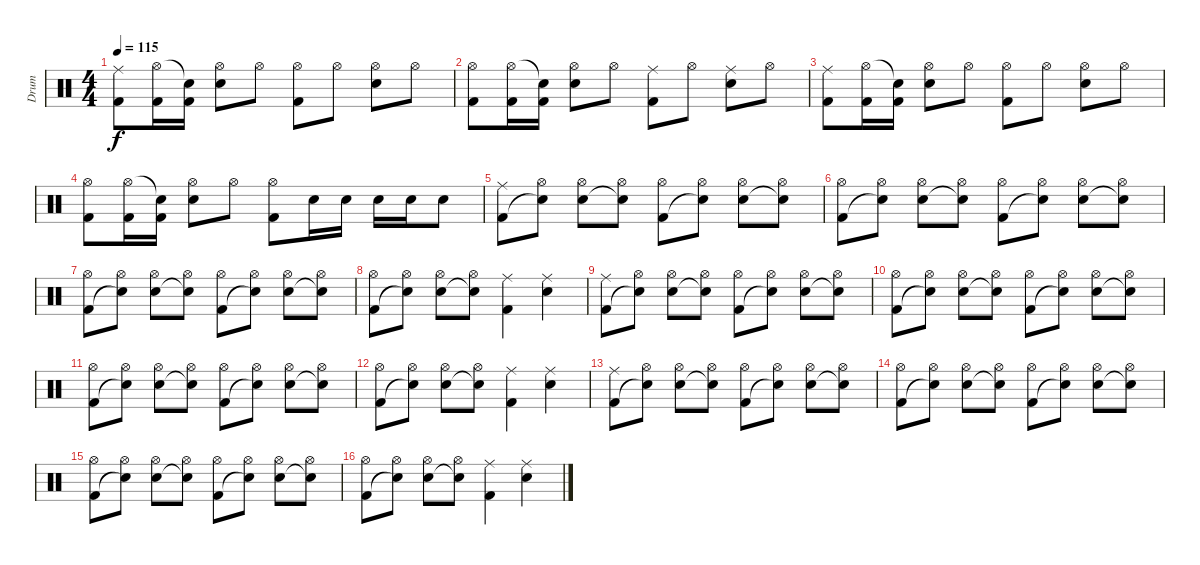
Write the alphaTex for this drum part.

\track ("Drum" "Drum") {instrument percussion}
\staff {score}
\articulation defaults
\ts (4 4)
\tempo 115
\clef neutral
\ks c
("Ride (middle)" "Kick (hit) 2").8{dy f} ("Hi-Hat (open)" "Kick (hit) 2").16 ("Snare (hit)"{t} "Kick (hit) 2").16 ("Hi-Hat (open)" "Electric Snare (hit)").8 "Hi-Hat (open)".8 ("Hi-Hat (open)" "Kick (hit) 2").8 "Hi-Hat (open)".8 ("Hi-Hat (open)" "Electric Snare (hit)").8 "Hi-Hat (open)".8 |
("Hi-Hat (open)" "Kick (hit) 2").8 ("Hi-Hat (open)" "Kick (hit) 2").16 ("Snare (hit)"{t} "Kick (hit) 2").16 ("Hi-Hat (open)" "Electric Snare (hit)").8 "Hi-Hat (open)".8 ("Ride (middle)" "Kick (hit) 2").8 "Hi-Hat (open)".8 ("Ride (middle)" "Electric Snare (hit)").8 "Hi-Hat (open)".8 |
("Ride (middle)" "Kick (hit) 2").8 ("Hi-Hat (open)" "Kick (hit) 2").16 ("Snare (hit)"{t} "Kick (hit) 2").16 ("Hi-Hat (open)" "Electric Snare (hit)").8 "Hi-Hat (open)".8 ("Hi-Hat (open)" "Kick (hit) 2").8 "Hi-Hat (open)".8 ("Hi-Hat (open)" "Electric Snare (hit)").8 "Hi-Hat (open)".8 |
("Hi-Hat (open)" "Kick (hit) 2").8 ("Hi-Hat (open)" "Kick (hit) 2").16 ("Snare (hit)"{t} "Kick (hit) 2").16 ("Hi-Hat (open)" "Electric Snare (hit)").8 "Hi-Hat (open)".8 ("Hi-Hat (open)" "Kick (hit) 2").8 "Electric Snare (hit)".16 "Electric Snare (hit)".16 "Electric Snare (hit)".16 "Electric Snare (hit)".16 "Electric Snare (hit)".8 |
("Ride (middle)" "Kick (hit) 2").8 ("Hi-Hat (open)" "Snare (hit)"{t}).8 ("Hi-Hat (open)" "Electric Snare (hit)").8 ("Hi-Hat (open)" "Snare (hit)"{t}).8 ("Hi-Hat (open)" "Kick (hit) 2").8 ("Hi-Hat (open)" "Snare (hit)"{t}).8 ("Hi-Hat (open)" "Electric Snare (hit)").8 ("Hi-Hat (open)" "Snare (hit)"{t}).8 |
("Hi-Hat (open)" "Kick (hit) 2").8 ("Hi-Hat (open)" "Snare (hit)"{t}).8 ("Hi-Hat (open)" "Electric Snare (hit)").8 ("Hi-Hat (open)" "Snare (hit)"{t}).8 ("Hi-Hat (open)" "Kick (hit) 2").8 ("Hi-Hat (open)" "Snare (hit)"{t}).8 ("Hi-Hat (open)" "Electric Snare (hit)").8 ("Hi-Hat (open)" "Snare (hit)"{t}).8 |
("Hi-Hat (open)" "Kick (hit) 2").8 ("Hi-Hat (open)" "Snare (hit)"{t}).8 ("Hi-Hat (open)" "Electric Snare (hit)").8 ("Hi-Hat (open)" "Snare (hit)"{t}).8 ("Hi-Hat (open)" "Kick (hit) 2").8 ("Hi-Hat (open)" "Snare (hit)"{t}).8 ("Hi-Hat (open)" "Electric Snare (hit)").8 ("Hi-Hat (open)" "Snare (hit)"{t}).8 |
("Hi-Hat (open)" "Kick (hit) 2").8 ("Hi-Hat (open)" "Snare (hit)"{t}).8 ("Hi-Hat (open)" "Electric Snare (hit)").8 ("Hi-Hat (open)" "Snare (hit)"{t}).8 ("Ride (middle)" "Kick (hit) 2").4 ("Ride (middle)" "Electric Snare (hit)").4 |
("Ride (middle)" "Kick (hit) 2").8 ("Hi-Hat (open)" "Snare (hit)"{t}).8 ("Hi-Hat (open)" "Electric Snare (hit)").8 ("Hi-Hat (open)" "Snare (hit)"{t}).8 ("Hi-Hat (open)" "Kick (hit) 2").8 ("Hi-Hat (open)" "Snare (hit)"{t}).8 ("Hi-Hat (open)" "Electric Snare (hit)").8 ("Hi-Hat (open)" "Snare (hit)"{t}).8 |
("Hi-Hat (open)" "Kick (hit) 2").8 ("Hi-Hat (open)" "Snare (hit)"{t}).8 ("Hi-Hat (open)" "Electric Snare (hit)").8 ("Hi-Hat (open)" "Snare (hit)"{t}).8 ("Hi-Hat (open)" "Kick (hit) 2").8 ("Hi-Hat (open)" "Snare (hit)"{t}).8 ("Hi-Hat (open)" "Electric Snare (hit)").8 ("Hi-Hat (open)" "Snare (hit)"{t}).8 |
("Hi-Hat (open)" "Kick (hit) 2").8 ("Hi-Hat (open)" "Snare (hit)"{t}).8 ("Hi-Hat (open)" "Electric Snare (hit)").8 ("Hi-Hat (open)" "Snare (hit)"{t}).8 ("Hi-Hat (open)" "Kick (hit) 2").8 ("Hi-Hat (open)" "Snare (hit)"{t}).8 ("Hi-Hat (open)" "Electric Snare (hit)").8 ("Hi-Hat (open)" "Snare (hit)"{t}).8 |
("Hi-Hat (open)" "Kick (hit) 2").8 ("Hi-Hat (open)" "Snare (hit)"{t}).8 ("Hi-Hat (open)" "Electric Snare (hit)").8 ("Hi-Hat (open)" "Snare (hit)"{t}).8 ("Ride (middle)" "Kick (hit) 2").4 ("Ride (middle)" "Electric Snare (hit)").4 |
("Ride (middle)" "Kick (hit) 2").8 ("Hi-Hat (open)" "Snare (hit)"{t}).8 ("Hi-Hat (open)" "Electric Snare (hit)").8 ("Hi-Hat (open)" "Snare (hit)"{t}).8 ("Hi-Hat (open)" "Kick (hit) 2").8 ("Hi-Hat (open)" "Snare (hit)"{t}).8 ("Hi-Hat (open)" "Electric Snare (hit)").8 ("Hi-Hat (open)" "Snare (hit)"{t}).8 |
("Hi-Hat (open)" "Kick (hit) 2").8 ("Hi-Hat (open)" "Snare (hit)"{t}).8 ("Hi-Hat (open)" "Electric Snare (hit)").8 ("Hi-Hat (open)" "Snare (hit)"{t}).8 ("Hi-Hat (open)" "Kick (hit) 2").8 ("Hi-Hat (open)" "Snare (hit)"{t}).8 ("Hi-Hat (open)" "Electric Snare (hit)").8 ("Hi-Hat (open)" "Snare (hit)"{t}).8 |
("Hi-Hat (open)" "Kick (hit) 2").8 ("Hi-Hat (open)" "Snare (hit)"{t}).8 ("Hi-Hat (open)" "Electric Snare (hit)").8 ("Hi-Hat (open)" "Snare (hit)"{t}).8 ("Hi-Hat (open)" "Kick (hit) 2").8 ("Hi-Hat (open)" "Snare (hit)"{t}).8 ("Hi-Hat (open)" "Electric Snare (hit)").8 ("Hi-Hat (open)" "Snare (hit)"{t}).8 |
("Hi-Hat (open)" "Kick (hit) 2").8 ("Hi-Hat (open)" "Snare (hit)"{t}).8 ("Hi-Hat (open)" "Electric Snare (hit)").8 ("Hi-Hat (open)" "Snare (hit)"{t}).8 ("Ride (middle)" "Kick (hit) 2").4 ("Ride (middle)" "Electric Snare (hit)").4
